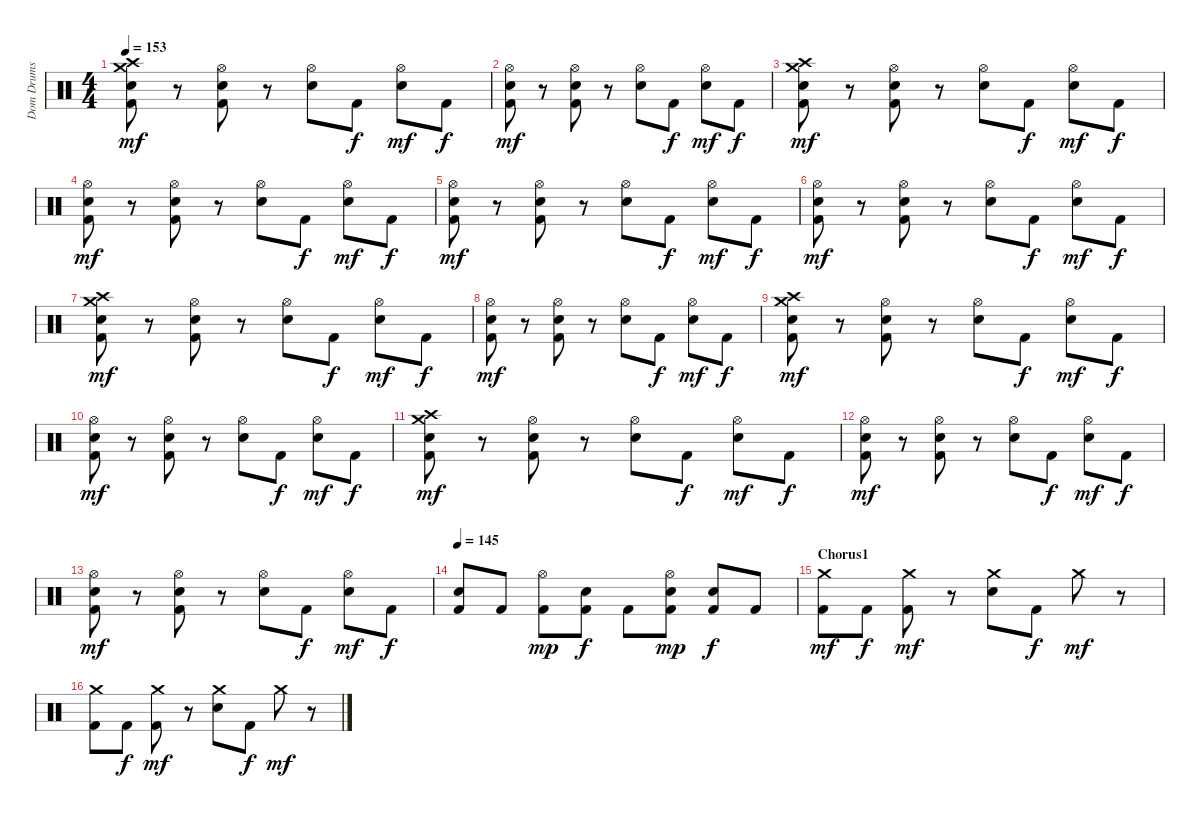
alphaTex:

\track ("Dom Drums" "Dom Drums") {instrument percussion}
\staff {score}
\articulation defaults
\ts (4 4)
\tempo 153
\clef neutral
\ks c
("Crash medium (hit)" "Crash high (hit)" "Kick (hit) 2" "Snare (hit) 2").8{dy mf} r.8 ("Hi-Hat (open)" "Kick (hit) 2" "Snare (hit) 2").8 r.8 ("Hi-Hat (open)" "Snare (hit) 2").8 "Kick (hit) 2".8{dy f} ("Hi-Hat (open)" "Snare (hit) 2").8{dy mf} "Kick (hit) 2".8{dy f} |
("Hi-Hat (open)" "Kick (hit) 2" "Snare (hit) 2").8{dy mf} r.8 ("Hi-Hat (open)" "Kick (hit) 2" "Snare (hit) 2").8 r.8 ("Hi-Hat (open)" "Snare (hit) 2").8 "Kick (hit) 2".8{dy f} ("Hi-Hat (open)" "Snare (hit) 2").8{dy mf} "Kick (hit) 2".8{dy f} |
("Crash medium (hit)" "Crash high (hit)" "Kick (hit) 2" "Snare (hit) 2").8{dy mf} r.8 ("Hi-Hat (open)" "Kick (hit) 2" "Snare (hit) 2").8 r.8 ("Hi-Hat (open)" "Snare (hit) 2").8 "Kick (hit) 2".8{dy f} ("Hi-Hat (open)" "Snare (hit) 2").8{dy mf} "Kick (hit) 2".8{dy f} |
("Hi-Hat (open)" "Kick (hit) 2" "Snare (hit) 2").8{dy mf} r.8 ("Hi-Hat (open)" "Kick (hit) 2" "Snare (hit) 2").8 r.8 ("Hi-Hat (open)" "Snare (hit) 2").8 "Kick (hit) 2".8{dy f} ("Hi-Hat (open)" "Snare (hit) 2").8{dy mf} "Kick (hit) 2".8{dy f} |
("Hi-Hat (open)" "Kick (hit) 2" "Snare (hit) 2").8{dy mf} r.8 ("Hi-Hat (open)" "Kick (hit) 2" "Snare (hit) 2").8 r.8 ("Hi-Hat (open)" "Snare (hit) 2").8 "Kick (hit) 2".8{dy f} ("Hi-Hat (open)" "Snare (hit) 2").8{dy mf} "Kick (hit) 2".8{dy f} |
("Hi-Hat (open)" "Kick (hit) 2" "Snare (hit) 2").8{dy mf} r.8 ("Hi-Hat (open)" "Kick (hit) 2" "Snare (hit) 2").8 r.8 ("Hi-Hat (open)" "Snare (hit) 2").8 "Kick (hit) 2".8{dy f} ("Hi-Hat (open)" "Snare (hit) 2").8{dy mf} "Kick (hit) 2".8{dy f} |
("Crash medium (hit)" "Crash high (hit)" "Kick (hit) 2" "Snare (hit) 2").8{dy mf} r.8 ("Hi-Hat (open)" "Kick (hit) 2" "Snare (hit) 2").8 r.8 ("Hi-Hat (open)" "Snare (hit) 2").8 "Kick (hit) 2".8{dy f} ("Hi-Hat (open)" "Snare (hit) 2").8{dy mf} "Kick (hit) 2".8{dy f} |
("Hi-Hat (open)" "Kick (hit) 2" "Snare (hit) 2").8{dy mf} r.8 ("Hi-Hat (open)" "Kick (hit) 2" "Snare (hit) 2").8 r.8 ("Hi-Hat (open)" "Snare (hit) 2").8 "Kick (hit) 2".8{dy f} ("Hi-Hat (open)" "Snare (hit) 2").8{dy mf} "Kick (hit) 2".8{dy f} |
("Crash medium (hit)" "Crash high (hit)" "Kick (hit) 2" "Snare (hit) 2").8{dy mf} r.8 ("Hi-Hat (open)" "Kick (hit) 2" "Snare (hit) 2").8 r.8 ("Hi-Hat (open)" "Snare (hit) 2").8 "Kick (hit) 2".8{dy f} ("Hi-Hat (open)" "Snare (hit) 2").8{dy mf} "Kick (hit) 2".8{dy f} |
("Hi-Hat (open)" "Kick (hit) 2" "Snare (hit) 2").8{dy mf} r.8 ("Hi-Hat (open)" "Kick (hit) 2" "Snare (hit) 2").8 r.8 ("Hi-Hat (open)" "Snare (hit) 2").8 "Kick (hit) 2".8{dy f} ("Hi-Hat (open)" "Snare (hit) 2").8{dy mf} "Kick (hit) 2".8{dy f} |
("Crash medium (hit)" "Crash high (hit)" "Kick (hit) 2" "Snare (hit) 2").8{dy mf} r.8 ("Hi-Hat (open)" "Kick (hit) 2" "Snare (hit) 2").8 r.8 ("Hi-Hat (open)" "Snare (hit) 2").8 "Kick (hit) 2".8{dy f} ("Hi-Hat (open)" "Snare (hit) 2").8{dy mf} "Kick (hit) 2".8{dy f} |
("Hi-Hat (open)" "Kick (hit) 2" "Snare (hit) 2").8{dy mf} r.8 ("Hi-Hat (open)" "Kick (hit) 2" "Snare (hit) 2").8 r.8 ("Hi-Hat (open)" "Snare (hit) 2").8 "Kick (hit) 2".8{dy f} ("Hi-Hat (open)" "Snare (hit) 2").8{dy mf} "Kick (hit) 2".8{dy f} |
("Hi-Hat (open)" "Kick (hit) 2" "Snare (hit) 2").8{dy mf} r.8 ("Hi-Hat (open)" "Kick (hit) 2" "Snare (hit) 2").8 r.8 ("Hi-Hat (open)" "Snare (hit) 2").8 "Kick (hit) 2".8{dy f} ("Hi-Hat (open)" "Snare (hit) 2").8{dy mf} "Kick (hit) 2".8{dy f} |
\tempo 145
("Kick (hit) 2" "Snare (hit) 2").8 "Kick (hit) 2".8 ("Hi-Hat (open)" "Kick (hit) 2").8{dy mp} ("Kick (hit) 2" "Snare (hit) 2").8{dy f} "Kick (hit) 2".8 ("Hi-Hat (open)" "Kick (hit) 2" "Snare (hit) 2").8{dy mp} ("Kick (hit) 2" "Snare (hit) 2").8{dy f} "Kick (hit) 2".8 |
\section ("" "Chorus1")
("Crash medium (hit)" "Kick (hit) 2").8{dy mf} "Kick (hit) 2".8{dy f} ("Crash medium (hit)" "Kick (hit) 2").8{dy mf} r.8 ("Crash medium (hit)" "Snare (hit) 2").8 "Kick (hit) 2".8{dy f} "Crash medium (hit)".8{dy mf} r.8 |
("Crash medium (hit)" "Kick (hit) 2").8 "Kick (hit) 2".8{dy f} ("Crash medium (hit)" "Kick (hit) 2").8{dy mf} r.8 ("Crash medium (hit)" "Snare (hit) 2").8 "Kick (hit) 2".8{dy f} "Crash medium (hit)".8{dy mf} r.8
